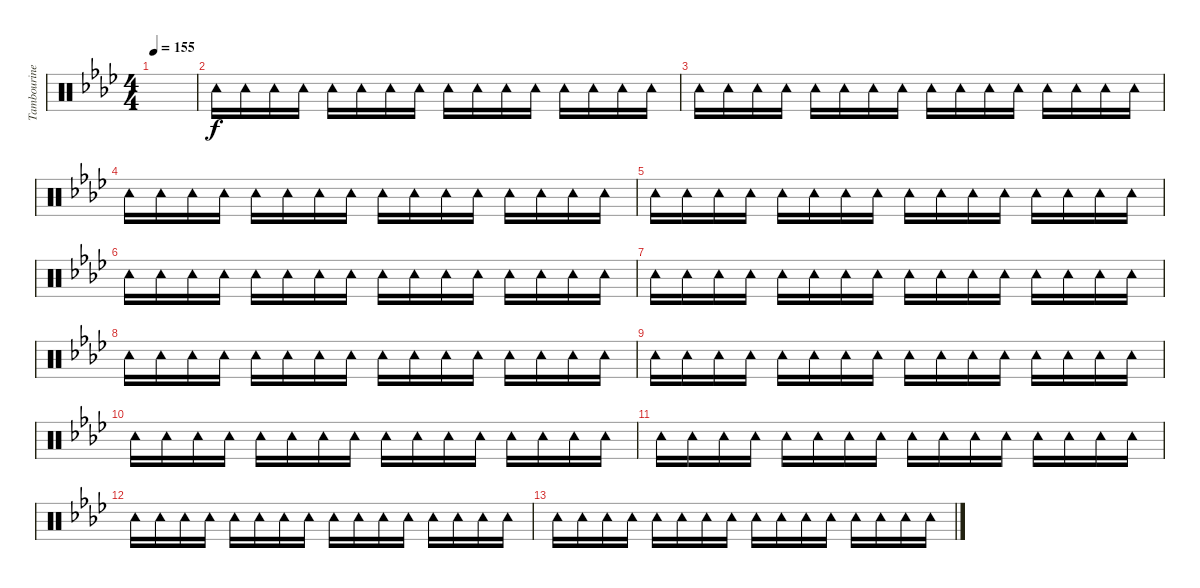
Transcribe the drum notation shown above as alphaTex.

\track ("Tambourine" "Tambourine") {instrument percussion}
\staff {score}
\articulation defaults
\ts (4 4)
\tempo 155
\clef neutral
\ks ab
|
"Tambourine (hit)".16 "Tambourine (hit)".16 "Tambourine (hit)".16 "Tambourine (hit)".16 "Tambourine (hit)".16 "Tambourine (hit)".16 "Tambourine (hit)".16 "Tambourine (hit)".16 "Tambourine (hit)".16 "Tambourine (hit)".16 "Tambourine (hit)".16 "Tambourine (hit)".16 "Tambourine (hit)".16 "Tambourine (hit)".16 "Tambourine (hit)".16 "Tambourine (hit)".16 |
"Tambourine (hit)".16 "Tambourine (hit)".16 "Tambourine (hit)".16 "Tambourine (hit)".16 "Tambourine (hit)".16 "Tambourine (hit)".16 "Tambourine (hit)".16 "Tambourine (hit)".16 "Tambourine (hit)".16 "Tambourine (hit)".16 "Tambourine (hit)".16 "Tambourine (hit)".16 "Tambourine (hit)".16 "Tambourine (hit)".16 "Tambourine (hit)".16 "Tambourine (hit)".16 |
"Tambourine (hit)".16 "Tambourine (hit)".16 "Tambourine (hit)".16 "Tambourine (hit)".16 "Tambourine (hit)".16 "Tambourine (hit)".16 "Tambourine (hit)".16 "Tambourine (hit)".16 "Tambourine (hit)".16 "Tambourine (hit)".16 "Tambourine (hit)".16 "Tambourine (hit)".16 "Tambourine (hit)".16 "Tambourine (hit)".16 "Tambourine (hit)".16 "Tambourine (hit)".16 |
"Tambourine (hit)".16 "Tambourine (hit)".16 "Tambourine (hit)".16 "Tambourine (hit)".16 "Tambourine (hit)".16 "Tambourine (hit)".16 "Tambourine (hit)".16 "Tambourine (hit)".16 "Tambourine (hit)".16 "Tambourine (hit)".16 "Tambourine (hit)".16 "Tambourine (hit)".16 "Tambourine (hit)".16 "Tambourine (hit)".16 "Tambourine (hit)".16 "Tambourine (hit)".16 |
"Tambourine (hit)".16 "Tambourine (hit)".16 "Tambourine (hit)".16 "Tambourine (hit)".16 "Tambourine (hit)".16 "Tambourine (hit)".16 "Tambourine (hit)".16 "Tambourine (hit)".16 "Tambourine (hit)".16 "Tambourine (hit)".16 "Tambourine (hit)".16 "Tambourine (hit)".16 "Tambourine (hit)".16 "Tambourine (hit)".16 "Tambourine (hit)".16 "Tambourine (hit)".16 |
"Tambourine (hit)".16 "Tambourine (hit)".16 "Tambourine (hit)".16 "Tambourine (hit)".16 "Tambourine (hit)".16 "Tambourine (hit)".16 "Tambourine (hit)".16 "Tambourine (hit)".16 "Tambourine (hit)".16 "Tambourine (hit)".16 "Tambourine (hit)".16 "Tambourine (hit)".16 "Tambourine (hit)".16 "Tambourine (hit)".16 "Tambourine (hit)".16 "Tambourine (hit)".16 |
"Tambourine (hit)".16 "Tambourine (hit)".16 "Tambourine (hit)".16 "Tambourine (hit)".16 "Tambourine (hit)".16 "Tambourine (hit)".16 "Tambourine (hit)".16 "Tambourine (hit)".16 "Tambourine (hit)".16 "Tambourine (hit)".16 "Tambourine (hit)".16 "Tambourine (hit)".16 "Tambourine (hit)".16 "Tambourine (hit)".16 "Tambourine (hit)".16 "Tambourine (hit)".16 |
"Tambourine (hit)".16 "Tambourine (hit)".16 "Tambourine (hit)".16 "Tambourine (hit)".16 "Tambourine (hit)".16 "Tambourine (hit)".16 "Tambourine (hit)".16 "Tambourine (hit)".16 "Tambourine (hit)".16 "Tambourine (hit)".16 "Tambourine (hit)".16 "Tambourine (hit)".16 "Tambourine (hit)".16 "Tambourine (hit)".16 "Tambourine (hit)".16 "Tambourine (hit)".16 |
"Tambourine (hit)".16 "Tambourine (hit)".16 "Tambourine (hit)".16 "Tambourine (hit)".16 "Tambourine (hit)".16 "Tambourine (hit)".16 "Tambourine (hit)".16 "Tambourine (hit)".16 "Tambourine (hit)".16 "Tambourine (hit)".16 "Tambourine (hit)".16 "Tambourine (hit)".16 "Tambourine (hit)".16 "Tambourine (hit)".16 "Tambourine (hit)".16 "Tambourine (hit)".16 |
"Tambourine (hit)".16 "Tambourine (hit)".16 "Tambourine (hit)".16 "Tambourine (hit)".16 "Tambourine (hit)".16 "Tambourine (hit)".16 "Tambourine (hit)".16 "Tambourine (hit)".16 "Tambourine (hit)".16 "Tambourine (hit)".16 "Tambourine (hit)".16 "Tambourine (hit)".16 "Tambourine (hit)".16 "Tambourine (hit)".16 "Tambourine (hit)".16 "Tambourine (hit)".16 |
"Tambourine (hit)".16 "Tambourine (hit)".16 "Tambourine (hit)".16 "Tambourine (hit)".16 "Tambourine (hit)".16 "Tambourine (hit)".16 "Tambourine (hit)".16 "Tambourine (hit)".16 "Tambourine (hit)".16 "Tambourine (hit)".16 "Tambourine (hit)".16 "Tambourine (hit)".16 "Tambourine (hit)".16 "Tambourine (hit)".16 "Tambourine (hit)".16 "Tambourine (hit)".16 |
"Tambourine (hit)".16 "Tambourine (hit)".16 "Tambourine (hit)".16 "Tambourine (hit)".16 "Tambourine (hit)".16 "Tambourine (hit)".16 "Tambourine (hit)".16 "Tambourine (hit)".16 "Tambourine (hit)".16 "Tambourine (hit)".16 "Tambourine (hit)".16 "Tambourine (hit)".16 "Tambourine (hit)".16 "Tambourine (hit)".16 "Tambourine (hit)".16 "Tambourine (hit)".16
